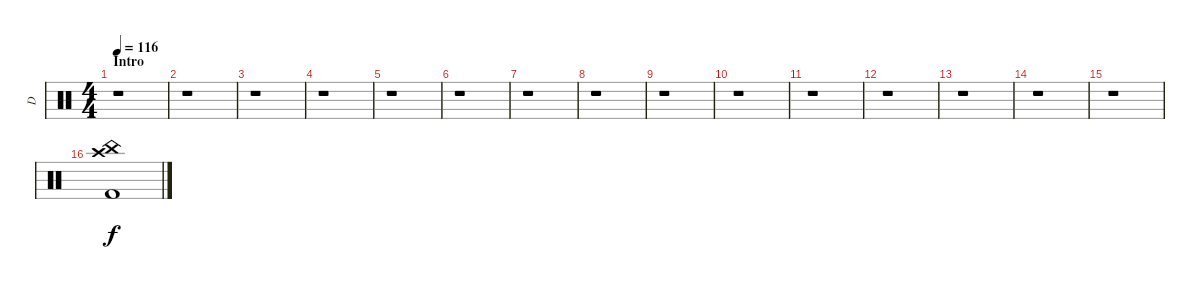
\track ("D" "D") {instrument percussion}
\staff {score}
\articulation defaults
\ts (4 4)
\section ("" "Intro")
\tempo 116
\clef neutral
\ks c
r.1{dy f} |
r.1 |
r.1 |
r.1 |
r.1 |
r.1 |
r.1 |
r.1 |
r.1 |
r.1 |
r.1 |
r.1 |
r.1 |
r.1 |
r.1 |
("Crash high (hit)" "China (hit)" "Kick (hit) 2").1
